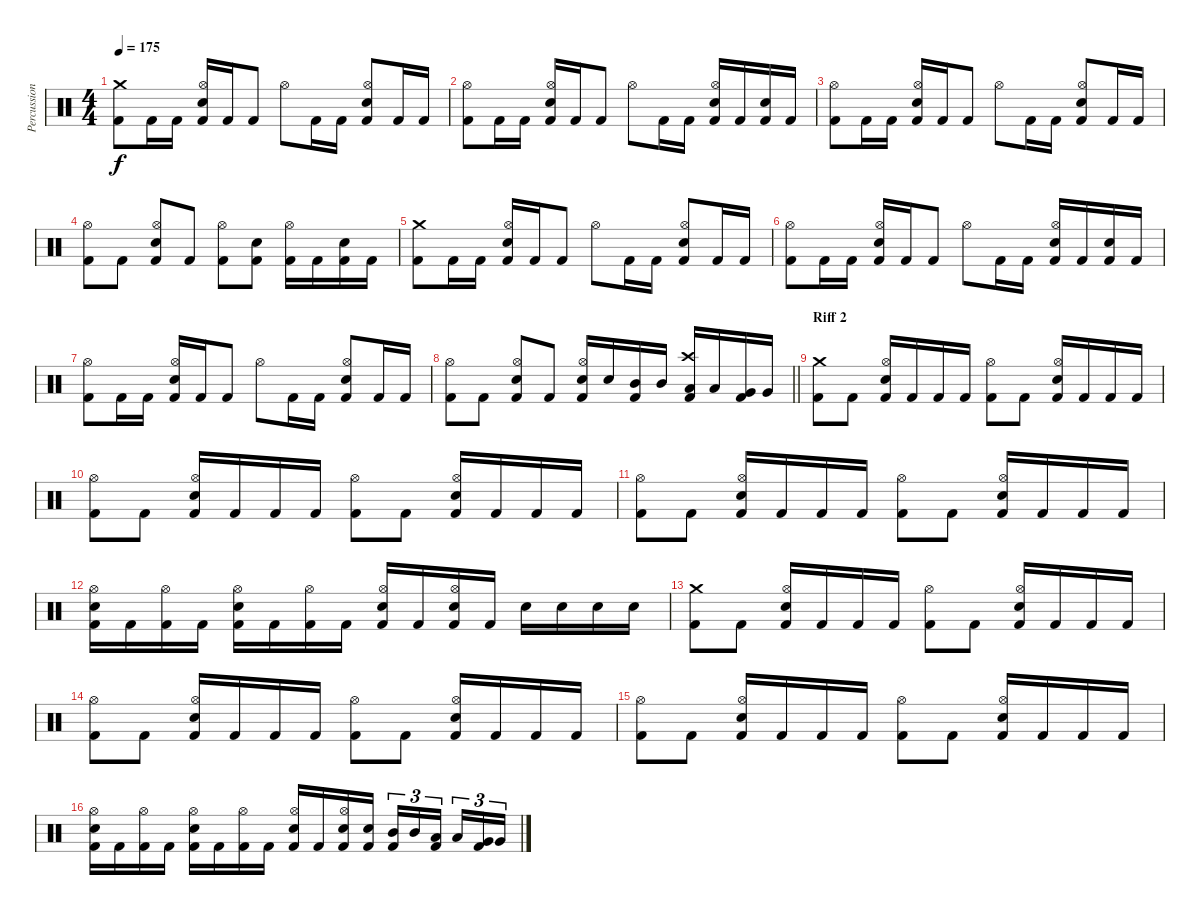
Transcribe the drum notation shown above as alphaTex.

\track ("Percussion" "Percussion") {instrument percussion}
\staff {score}
\articulation defaults
\ts (4 4)
\tempo 175
\clef neutral
\ks c
("Crash medium (hit)" "Kick (hit) 2").8{dy f} "Kick (hit) 2".16 "Kick (hit) 2".16 ("Kick (hit) 2" "Hi-Hat (open)" "Snare (hit) 2").16 "Kick (hit) 2".16 "Kick (hit) 2".8 "Hi-Hat (open)".8 "Kick (hit) 2".16 "Kick (hit) 2".16 ("Kick (hit) 2" "Hi-Hat (open)" "Snare (hit) 2").8 "Kick (hit) 2".16 "Kick (hit) 2".16 |
("Hi-Hat (open)" "Kick (hit) 2").8 "Kick (hit) 2".16 "Kick (hit) 2".16 ("Kick (hit) 2" "Hi-Hat (open)" "Snare (hit) 2").16 "Kick (hit) 2".16 "Kick (hit) 2".8 "Hi-Hat (open)".8 "Kick (hit) 2".16 "Kick (hit) 2".16 ("Kick (hit) 2" "Hi-Hat (open)" "Snare (hit) 2").16 "Kick (hit) 2".16 ("Kick (hit) 2" "Snare (hit) 2").16 "Kick (hit) 2".16 |
("Hi-Hat (open)" "Kick (hit) 2").8 "Kick (hit) 2".16 "Kick (hit) 2".16 ("Kick (hit) 2" "Hi-Hat (open)" "Snare (hit) 2").16 "Kick (hit) 2".16 "Kick (hit) 2".8 "Hi-Hat (open)".8 "Kick (hit) 2".16 "Kick (hit) 2".16 ("Kick (hit) 2" "Hi-Hat (open)" "Snare (hit) 2").8 "Kick (hit) 2".16 "Kick (hit) 2".16 |
("Hi-Hat (open)" "Kick (hit) 2").8 "Kick (hit) 2".8 ("Kick (hit) 2" "Hi-Hat (open)" "Snare (hit) 2").8 "Kick (hit) 2".8 ("Hi-Hat (open)" "Kick (hit) 2").8 ("Kick (hit) 2" "Snare (hit) 2").8 ("Hi-Hat (open)" "Kick (hit) 2").16 "Kick (hit) 2".16 ("Kick (hit) 2" "Snare (hit) 2").16 "Kick (hit) 2".16 |
("Crash medium (hit)" "Kick (hit) 2").8 "Kick (hit) 2".16 "Kick (hit) 2".16 ("Kick (hit) 2" "Hi-Hat (open)" "Snare (hit) 2").16 "Kick (hit) 2".16 "Kick (hit) 2".8 "Hi-Hat (open)".8 "Kick (hit) 2".16 "Kick (hit) 2".16 ("Kick (hit) 2" "Hi-Hat (open)" "Snare (hit) 2").8 "Kick (hit) 2".16 "Kick (hit) 2".16 |
("Hi-Hat (open)" "Kick (hit) 2").8 "Kick (hit) 2".16 "Kick (hit) 2".16 ("Kick (hit) 2" "Hi-Hat (open)" "Snare (hit) 2").16 "Kick (hit) 2".16 "Kick (hit) 2".8 "Hi-Hat (open)".8 "Kick (hit) 2".16 "Kick (hit) 2".16 ("Kick (hit) 2" "Hi-Hat (open)" "Snare (hit) 2").16 "Kick (hit) 2".16 ("Kick (hit) 2" "Snare (hit) 2").16 "Kick (hit) 2".16 |
("Hi-Hat (open)" "Kick (hit) 2").8 "Kick (hit) 2".16 "Kick (hit) 2".16 ("Kick (hit) 2" "Hi-Hat (open)" "Snare (hit) 2").16 "Kick (hit) 2".16 "Kick (hit) 2".8 "Hi-Hat (open)".8 "Kick (hit) 2".16 "Kick (hit) 2".16 ("Kick (hit) 2" "Hi-Hat (open)" "Snare (hit) 2").8 "Kick (hit) 2".16 "Kick (hit) 2".16 |
\barLineRight lightlight
("Hi-Hat (open)" "Kick (hit) 2").8 "Kick (hit) 2".8 ("Kick (hit) 2" "Hi-Hat (open)" "Snare (hit) 2").8 "Kick (hit) 2".8 ("Kick (hit) 2" "Hi-Hat (open)" "Snare (hit) 2").16 "Snare (hit) 2".16 ("Kick (hit) 2" "Mid Tom (hit)").16 "Mid Tom (hit)".16 ("Kick (hit) 2" "Crash high (hit)" "Low Tom (hit)").16 "Low Tom (hit)".16 ("Kick (hit) 2" "Very Low Tom (hit)").16 "Very Low Tom (hit)".16 |
\section ("" "Riff 2")
("Crash medium (hit)" "Kick (hit) 2").8 "Kick (hit) 2".8 ("Kick (hit) 2" "Hi-Hat (open)" "Snare (hit) 2").16 "Kick (hit) 2".16 "Kick (hit) 2".16 "Kick (hit) 2".16 ("Hi-Hat (open)" "Kick (hit) 2").8 "Kick (hit) 2".8 ("Kick (hit) 2" "Hi-Hat (open)" "Snare (hit) 2").16 "Kick (hit) 2".16 "Kick (hit) 2".16 "Kick (hit) 2".16 |
("Hi-Hat (open)" "Kick (hit) 2").8 "Kick (hit) 2".8 ("Kick (hit) 2" "Hi-Hat (open)" "Snare (hit) 2").16 "Kick (hit) 2".16 "Kick (hit) 2".16 "Kick (hit) 2".16 ("Hi-Hat (open)" "Kick (hit) 2").8 "Kick (hit) 2".8 ("Kick (hit) 2" "Hi-Hat (open)" "Snare (hit) 2").16 "Kick (hit) 2".16 "Kick (hit) 2".16 "Kick (hit) 2".16 |
("Hi-Hat (open)" "Kick (hit) 2").8 "Kick (hit) 2".8 ("Kick (hit) 2" "Hi-Hat (open)" "Snare (hit) 2").16 "Kick (hit) 2".16 "Kick (hit) 2".16 "Kick (hit) 2".16 ("Hi-Hat (open)" "Kick (hit) 2").8 "Kick (hit) 2".8 ("Kick (hit) 2" "Hi-Hat (open)" "Snare (hit) 2").16 "Kick (hit) 2".16 "Kick (hit) 2".16 "Kick (hit) 2".16 |
("Kick (hit) 2" "Hi-Hat (open)" "Snare (hit) 2").16 "Kick (hit) 2".16 ("Hi-Hat (open)" "Kick (hit) 2").16 "Kick (hit) 2".16 ("Kick (hit) 2" "Hi-Hat (open)" "Snare (hit) 2").16 "Kick (hit) 2".16 ("Hi-Hat (open)" "Kick (hit) 2").16 "Kick (hit) 2".16 ("Kick (hit) 2" "Hi-Hat (open)" "Snare (hit) 2").16 "Kick (hit) 2".16 ("Kick (hit) 2" "Hi-Hat (open)" "Snare (hit) 2").16 "Kick (hit) 2".16 "Snare (hit) 2".16 "Snare (hit) 2".16 "Snare (hit) 2".16 "Snare (hit) 2".16 |
("Crash medium (hit)" "Kick (hit) 2").8 "Kick (hit) 2".8 ("Kick (hit) 2" "Hi-Hat (open)" "Snare (hit) 2").16 "Kick (hit) 2".16 "Kick (hit) 2".16 "Kick (hit) 2".16 ("Hi-Hat (open)" "Kick (hit) 2").8 "Kick (hit) 2".8 ("Kick (hit) 2" "Hi-Hat (open)" "Snare (hit) 2").16 "Kick (hit) 2".16 "Kick (hit) 2".16 "Kick (hit) 2".16 |
("Hi-Hat (open)" "Kick (hit) 2").8 "Kick (hit) 2".8 ("Kick (hit) 2" "Hi-Hat (open)" "Snare (hit) 2").16 "Kick (hit) 2".16 "Kick (hit) 2".16 "Kick (hit) 2".16 ("Hi-Hat (open)" "Kick (hit) 2").8 "Kick (hit) 2".8 ("Kick (hit) 2" "Hi-Hat (open)" "Snare (hit) 2").16 "Kick (hit) 2".16 "Kick (hit) 2".16 "Kick (hit) 2".16 |
("Hi-Hat (open)" "Kick (hit) 2").8 "Kick (hit) 2".8 ("Kick (hit) 2" "Hi-Hat (open)" "Snare (hit) 2").16 "Kick (hit) 2".16 "Kick (hit) 2".16 "Kick (hit) 2".16 ("Hi-Hat (open)" "Kick (hit) 2").8 "Kick (hit) 2".8 ("Kick (hit) 2" "Hi-Hat (open)" "Snare (hit) 2").16 "Kick (hit) 2".16 "Kick (hit) 2".16 "Kick (hit) 2".16 |
("Kick (hit) 2" "Hi-Hat (open)" "Snare (hit) 2").16 "Kick (hit) 2".16 ("Hi-Hat (open)" "Kick (hit) 2").16 "Kick (hit) 2".16 ("Kick (hit) 2" "Hi-Hat (open)" "Snare (hit) 2").16 "Kick (hit) 2".16 ("Hi-Hat (open)" "Kick (hit) 2").16 "Kick (hit) 2".16 ("Kick (hit) 2" "Hi-Hat (open)" "Snare (hit) 2").16 "Kick (hit) 2".16 ("Kick (hit) 2" "Hi-Hat (open)" "Snare (hit) 2").16 ("Kick (hit) 2" "Snare (hit) 2").16 ("Kick (hit) 2" "Mid Tom (hit)").16{tu (3 2)} "Mid Tom (hit)".16{tu (3 2)} ("Kick (hit) 2" "Low Tom (hit)").16{tu (3 2)} "Low Tom (hit)".16{tu (3 2)} ("Kick (hit) 2" "Very Low Tom (hit)").16{tu (3 2)} "Very Low Tom (hit)".16{tu (3 2)}
